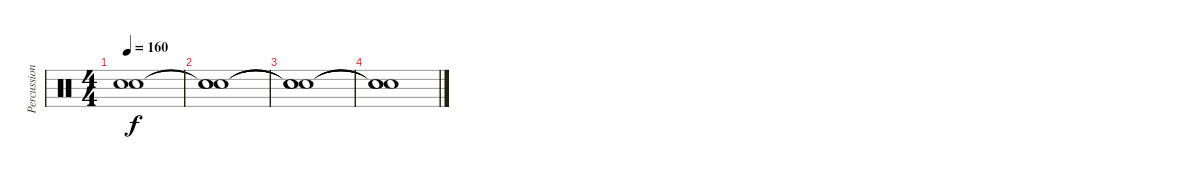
\track ("Percussions" "Percussion") {instrument percussion}
\staff {score}
\articulation defaults
\ts (4 4)
\tempo 160
\clef neutral
\ks c
("Snare (hit)"{t} "Snare (hit)"{t}).1{dy f} |
("Snare (hit)"{t} "Snare (hit)"{t} "Snare (hit)"{t}).1 |
("Snare (hit)"{t} "Snare (hit)"{t} "Snare (hit)"{t}).1 |
("Snare (hit)"{t} "Snare (hit)"{t} "Snare (hit)"{t}).1
